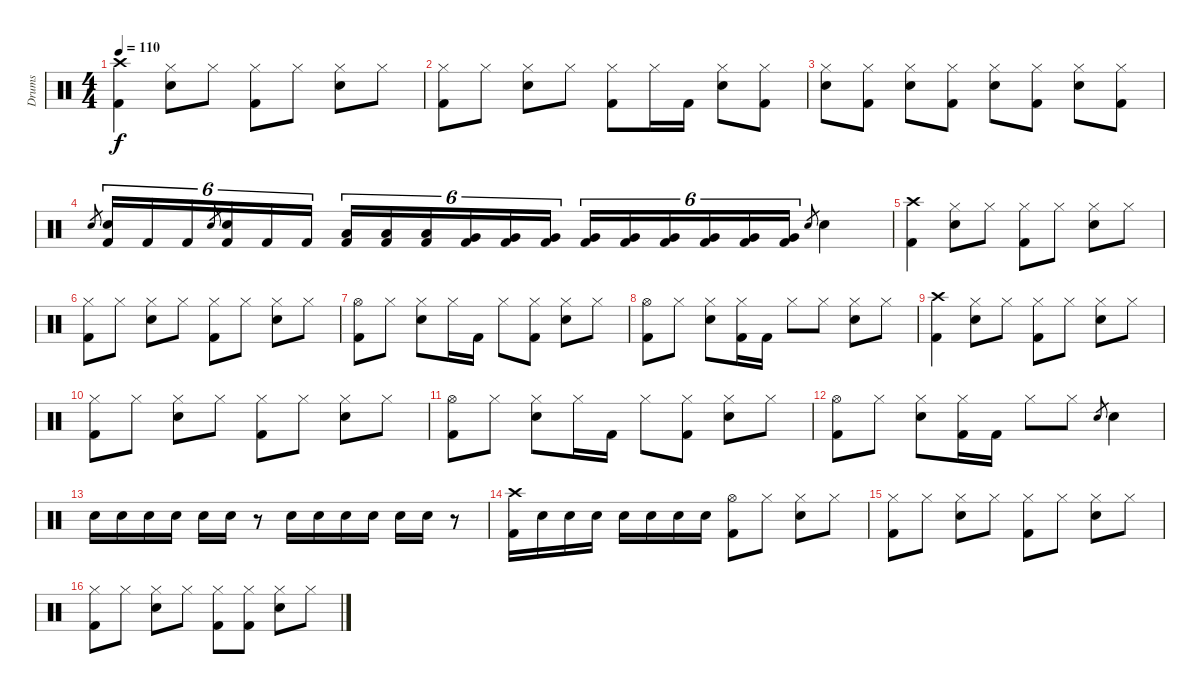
\track ("Drums" "Drums") {instrument percussion}
\staff {score}
\articulation defaults
\ts (4 4)
\tempo 110
\clef neutral
\ks c
("Crash high (hit)" "Kick (hit) 2").4{dy f} ("Hi-Hat (closed)" "Electric Snare (hit)").8 "Hi-Hat (closed)".8 ("Hi-Hat (closed)" "Kick (hit) 2").8 "Hi-Hat (closed)".8 ("Hi-Hat (closed)" "Electric Snare (hit)").8 "Hi-Hat (closed)".8 |
("Hi-Hat (closed)" "Kick (hit) 2").8 "Hi-Hat (closed)".8 ("Hi-Hat (closed)" "Electric Snare (hit)").8 "Hi-Hat (closed)".8 ("Hi-Hat (closed)" "Kick (hit) 2").8 "Hi-Hat (closed)".16 "Kick (hit) 2".16 ("Hi-Hat (closed)" "Electric Snare (hit)").8 ("Hi-Hat (closed)" "Kick (hit) 2").8 |
("Hi-Hat (closed)" "Electric Snare (hit)").8 ("Hi-Hat (closed)" "Kick (hit) 2").8 ("Hi-Hat (closed)" "Electric Snare (hit)").8 ("Hi-Hat (closed)" "Kick (hit) 2").8 ("Hi-Hat (closed)" "Electric Snare (hit)").8 ("Hi-Hat (closed)" "Kick (hit) 2").8 ("Hi-Hat (closed)" "Electric Snare (hit)").8 ("Hi-Hat (closed)" "Kick (hit) 2").8 |
"Electric Snare (hit)".8{gr} ("Electric Snare (hit)" "Kick (hit) 2").16{tu (6 4)} "Kick (hit) 2".16{tu (6 4)} "Kick (hit) 2".16{tu (6 4)} "Electric Snare (hit)".8{gr} ("Electric Snare (hit)" "Kick (hit) 2").16{tu (6 4)} "Kick (hit) 2".16{tu (6 4)} "Kick (hit) 2".16{tu (6 4)} ("Low Tom (hit)" "Kick (hit) 2").16{tu (6 4)} ("Low Tom (hit)" "Kick (hit) 2").16{tu (6 4)} ("Low Tom (hit)" "Kick (hit) 2").16{tu (6 4)} ("Very Low Tom (hit)" "Kick (hit) 2").16{tu (6 4)} ("Very Low Tom (hit)" "Kick (hit) 2").16{tu (6 4)} ("Very Low Tom (hit)" "Kick (hit) 2").16{tu (6 4)} ("Very Low Tom (hit)" "Kick (hit) 2").16{tu (6 4)} ("Very Low Tom (hit)" "Kick (hit) 2").16{tu (6 4)} ("Very Low Tom (hit)" "Kick (hit) 2").16{tu (6 4)} ("Very Low Tom (hit)" "Kick (hit) 2").16{tu (6 4)} ("Very Low Tom (hit)" "Kick (hit) 2").16{tu (6 4)} ("Very Low Tom (hit)" "Kick (hit) 2").16{tu (6 4)} "Electric Snare (hit)".8{gr} "Electric Snare (hit)".4 |
("Crash high (hit)" "Kick (hit) 2").4 ("Hi-Hat (closed)" "Electric Snare (hit)").8 "Hi-Hat (closed)".8 ("Hi-Hat (closed)" "Kick (hit) 2").8 "Hi-Hat (closed)".8 ("Hi-Hat (closed)" "Electric Snare (hit)").8 "Hi-Hat (closed)".8 |
("Hi-Hat (closed)" "Kick (hit) 2").8 "Hi-Hat (closed)".8 ("Hi-Hat (closed)" "Electric Snare (hit)").8 "Hi-Hat (closed)".8 ("Hi-Hat (closed)" "Kick (hit) 2").8 "Hi-Hat (closed)".8 ("Hi-Hat (closed)" "Electric Snare (hit)").8 "Hi-Hat (closed)".8 |
("Hi-Hat (open)" "Kick (hit) 2").8 "Hi-Hat (closed)".8 ("Hi-Hat (closed)" "Electric Snare (hit)").8 "Hi-Hat (closed)".16 "Kick (hit) 2".16 "Hi-Hat (closed)".8 ("Hi-Hat (closed)" "Kick (hit) 2").8 ("Hi-Hat (closed)" "Electric Snare (hit)").8 "Hi-Hat (closed)".8 |
("Hi-Hat (open)" "Kick (hit) 2").8 "Hi-Hat (closed)".8 ("Hi-Hat (closed)" "Electric Snare (hit)").8 ("Hi-Hat (closed)" "Kick (hit) 2").16 "Kick (hit) 2".16 "Hi-Hat (closed)".8 "Hi-Hat (closed)".8 ("Hi-Hat (closed)" "Electric Snare (hit)").8 "Hi-Hat (closed)".8 |
("Crash high (hit)" "Kick (hit) 2").4 ("Hi-Hat (closed)" "Electric Snare (hit)").8 "Hi-Hat (closed)".8 ("Hi-Hat (closed)" "Kick (hit) 2").8 "Hi-Hat (closed)".8 ("Hi-Hat (closed)" "Electric Snare (hit)").8 "Hi-Hat (closed)".8 |
("Hi-Hat (closed)" "Kick (hit) 2").8 "Hi-Hat (closed)".8 ("Hi-Hat (closed)" "Electric Snare (hit)").8 "Hi-Hat (closed)".8 ("Hi-Hat (closed)" "Kick (hit) 2").8 "Hi-Hat (closed)".8 ("Hi-Hat (closed)" "Electric Snare (hit)").8 "Hi-Hat (closed)".8 |
("Hi-Hat (open)" "Kick (hit) 2").8 "Hi-Hat (closed)".8 ("Hi-Hat (closed)" "Electric Snare (hit)").8 "Hi-Hat (closed)".16 "Kick (hit) 2".16 "Hi-Hat (closed)".8 ("Hi-Hat (closed)" "Kick (hit) 2").8 ("Hi-Hat (closed)" "Electric Snare (hit)").8 "Hi-Hat (closed)".8 |
("Hi-Hat (open)" "Kick (hit) 2").8 "Hi-Hat (closed)".8 ("Hi-Hat (closed)" "Electric Snare (hit)").8 ("Hi-Hat (closed)" "Kick (hit) 2").16 "Kick (hit) 2".16 "Hi-Hat (closed)".8 "Hi-Hat (closed)".8 "Electric Snare (hit)".8{gr} "Electric Snare (hit)".4 |
"Electric Snare (hit)".16 "Electric Snare (hit)".16 "Electric Snare (hit)".16 "Electric Snare (hit)".16 "Electric Snare (hit)".16 "Electric Snare (hit)".16 r.8 "Electric Snare (hit)".16 "Electric Snare (hit)".16 "Electric Snare (hit)".16 "Electric Snare (hit)".16 "Electric Snare (hit)".16 "Electric Snare (hit)".16 r.8 |
("Crash high (hit)" "Kick (hit) 2").16 "Electric Snare (hit)".16 "Electric Snare (hit)".16 "Electric Snare (hit)".16 "Electric Snare (hit)".16 "Electric Snare (hit)".16 "Electric Snare (hit)".16 "Electric Snare (hit)".16 ("Hi-Hat (open)" "Kick (hit) 2").8 "Hi-Hat (closed)".8 ("Hi-Hat (closed)" "Electric Snare (hit)").8 "Hi-Hat (closed)".8 |
("Hi-Hat (closed)" "Kick (hit) 2").8 "Hi-Hat (closed)".8 ("Hi-Hat (closed)" "Electric Snare (hit)").8 "Hi-Hat (closed)".8 ("Hi-Hat (closed)" "Kick (hit) 2").8 "Hi-Hat (closed)".8 ("Hi-Hat (closed)" "Electric Snare (hit)").8 "Hi-Hat (closed)".8 |
("Hi-Hat (closed)" "Kick (hit) 2").8 "Hi-Hat (closed)".8 ("Hi-Hat (closed)" "Electric Snare (hit)").8 "Hi-Hat (closed)".8 ("Hi-Hat (closed)" "Kick (hit) 2").8 ("Hi-Hat (closed)" "Kick (hit) 2").8 ("Hi-Hat (closed)" "Electric Snare (hit)").8 "Hi-Hat (closed)".8
